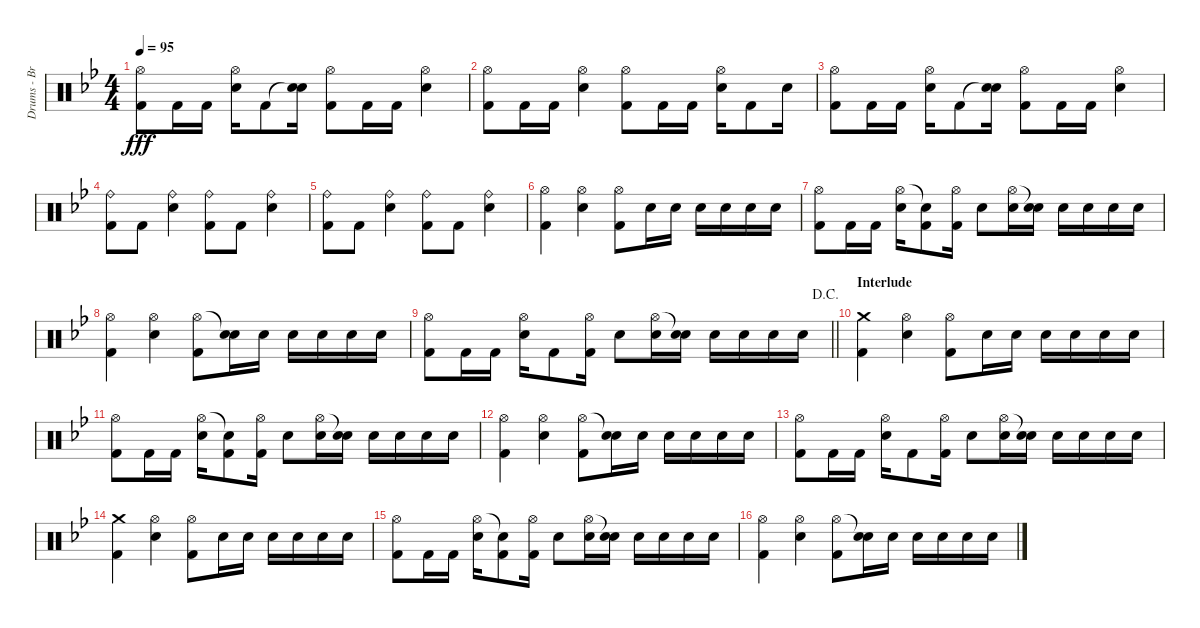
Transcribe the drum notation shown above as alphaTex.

\track ("Drums - Brooks Wackerman" "Drums - Br") {instrument percussion}
\staff {score}
\articulation defaults
\ts (4 4)
\tempo 95
\clef neutral
\ks bb
("Hi-Hat (open)" "Kick (hit) 2").8{dy fff} "Kick (hit) 2".16 "Kick (hit) 2".16 ("Hi-Hat (open)" "Electric Snare (hit)").16 "Kick (hit) 2".8 ("Snare (hit)"{t} "Electric Snare (hit)").16 ("Hi-Hat (open)" "Kick (hit) 2").8 "Kick (hit) 2".16 "Kick (hit) 2".16 ("Hi-Hat (open)" "Electric Snare (hit)").4 |
("Hi-Hat (open)" "Kick (hit) 2").8 "Kick (hit) 2".16 "Kick (hit) 2".16 ("Hi-Hat (open)" "Electric Snare (hit)").4 ("Hi-Hat (open)" "Kick (hit) 2").8 "Kick (hit) 2".16 "Kick (hit) 2".16 ("Hi-Hat (open)" "Electric Snare (hit)").16 "Kick (hit) 2".8 "Electric Snare (hit)".16 |
("Hi-Hat (open)" "Kick (hit) 2").8 "Kick (hit) 2".16 "Kick (hit) 2".16 ("Hi-Hat (open)" "Electric Snare (hit)").16 "Kick (hit) 2".8 ("Snare (hit)"{t} "Electric Snare (hit)").16 ("Hi-Hat (open)" "Kick (hit) 2").8 "Kick (hit) 2".16 "Kick (hit) 2".16 ("Hi-Hat (open)" "Electric Snare (hit)").4 |
("Ride (bell)" "Kick (hit) 2").8 "Kick (hit) 2".8 ("Ride (bell)" "Electric Snare (hit)").4 ("Ride (bell)" "Kick (hit) 2").8 "Kick (hit) 2".8 ("Ride (bell)" "Electric Snare (hit)").4 |
("Ride (bell)" "Kick (hit) 2").8 "Kick (hit) 2".8 ("Ride (bell)" "Electric Snare (hit)").4 ("Ride (bell)" "Kick (hit) 2").8 "Kick (hit) 2".8 ("Ride (bell)" "Electric Snare (hit)").4 |
("Hi-Hat (open)" "Kick (hit) 2").4 ("Hi-Hat (open)" "Electric Snare (hit)").4 ("Hi-Hat (open)" "Kick (hit) 2").8 "Electric Snare (hit)".16 "Electric Snare (hit)".16 "Electric Snare (hit)".16 "Electric Snare (hit)".16 "Electric Snare (hit)".16 "Electric Snare (hit)".16 |
("Hi-Hat (open)" "Kick (hit) 2").8 "Kick (hit) 2".16 "Kick (hit) 2".16 ("Hi-Hat (open)" "Electric Snare (hit)").16 ("Snare (hit)"{t} "Kick (hit) 2").8 ("Hi-Hat (open)" "Kick (hit) 2").16 "Electric Snare (hit)".8 ("Hi-Hat (open)" "Electric Snare (hit)").16 ("Snare (hit)"{t} "Electric Snare (hit)").16 "Electric Snare (hit)".16 "Electric Snare (hit)".16 "Electric Snare (hit)".16 "Electric Snare (hit)".16 |
("Hi-Hat (open)" "Kick (hit) 2").4 ("Hi-Hat (open)" "Electric Snare (hit)").4 ("Hi-Hat (open)" "Kick (hit) 2").8 ("Snare (hit)"{t} "Electric Snare (hit)").16 "Electric Snare (hit)".16 "Electric Snare (hit)".16 "Electric Snare (hit)".16 "Electric Snare (hit)".16 "Electric Snare (hit)".16 |
\jump dacapo
\barLineRight lightlight
("Hi-Hat (open)" "Kick (hit) 2").8 "Kick (hit) 2".16 "Kick (hit) 2".16 ("Hi-Hat (open)" "Electric Snare (hit)").16 "Kick (hit) 2".8 ("Hi-Hat (open)" "Kick (hit) 2").16 "Electric Snare (hit)".8 ("Hi-Hat (open)" "Electric Snare (hit)").16 ("Snare (hit)"{t} "Electric Snare (hit)").16 "Electric Snare (hit)".16 "Electric Snare (hit)".16 "Electric Snare (hit)".16 "Electric Snare (hit)".16 |
\section ("" "Interlude")
("Kick (hit) 2" "Crash medium (hit)").4 ("Hi-Hat (open)" "Electric Snare (hit)").4 ("Kick (hit) 2" "Hi-Hat (open)").8 "Electric Snare (hit)".16 "Electric Snare (hit)".16 "Electric Snare (hit)".16 "Electric Snare (hit)".16 "Electric Snare (hit)".16 "Electric Snare (hit)".16 |
("Hi-Hat (open)" "Kick (hit) 2").8 "Kick (hit) 2".16 "Kick (hit) 2".16 ("Hi-Hat (open)" "Electric Snare (hit)").16 ("Snare (hit)"{t} "Kick (hit) 2").8 ("Hi-Hat (open)" "Kick (hit) 2").16 "Electric Snare (hit)".8 ("Hi-Hat (open)" "Electric Snare (hit)").16 ("Snare (hit)"{t} "Electric Snare (hit)").16 "Electric Snare (hit)".16 "Electric Snare (hit)".16 "Electric Snare (hit)".16 "Electric Snare (hit)".16 |
("Hi-Hat (open)" "Kick (hit) 2").4 ("Hi-Hat (open)" "Electric Snare (hit)").4 ("Hi-Hat (open)" "Kick (hit) 2").8 ("Snare (hit)"{t} "Electric Snare (hit)").16 "Electric Snare (hit)".16 "Electric Snare (hit)".16 "Electric Snare (hit)".16 "Electric Snare (hit)".16 "Electric Snare (hit)".16 |
("Hi-Hat (open)" "Kick (hit) 2").8 "Kick (hit) 2".16 "Kick (hit) 2".16 ("Hi-Hat (open)" "Electric Snare (hit)").16 "Kick (hit) 2".8 ("Hi-Hat (open)" "Kick (hit) 2").16 "Electric Snare (hit)".8 ("Hi-Hat (open)" "Electric Snare (hit)").16 ("Snare (hit)"{t} "Electric Snare (hit)").16 "Electric Snare (hit)".16 "Electric Snare (hit)".16 "Electric Snare (hit)".16 "Electric Snare (hit)".16 |
("Kick (hit) 2" "Crash medium (hit)").4 ("Hi-Hat (open)" "Electric Snare (hit)").4 ("Kick (hit) 2" "Hi-Hat (open)").8 "Electric Snare (hit)".16 "Electric Snare (hit)".16 "Electric Snare (hit)".16 "Electric Snare (hit)".16 "Electric Snare (hit)".16 "Electric Snare (hit)".16 |
("Hi-Hat (open)" "Kick (hit) 2").8 "Kick (hit) 2".16 "Kick (hit) 2".16 ("Hi-Hat (open)" "Electric Snare (hit)").16 ("Snare (hit)"{t} "Kick (hit) 2").8 ("Hi-Hat (open)" "Kick (hit) 2").16 "Electric Snare (hit)".8 ("Hi-Hat (open)" "Electric Snare (hit)").16 ("Snare (hit)"{t} "Electric Snare (hit)").16 "Electric Snare (hit)".16 "Electric Snare (hit)".16 "Electric Snare (hit)".16 "Electric Snare (hit)".16 |
("Hi-Hat (open)" "Kick (hit) 2").4 ("Hi-Hat (open)" "Electric Snare (hit)").4 ("Hi-Hat (open)" "Kick (hit) 2").8 ("Snare (hit)"{t} "Electric Snare (hit)").16 "Electric Snare (hit)".16 "Electric Snare (hit)".16 "Electric Snare (hit)".16 "Electric Snare (hit)".16 "Electric Snare (hit)".16
